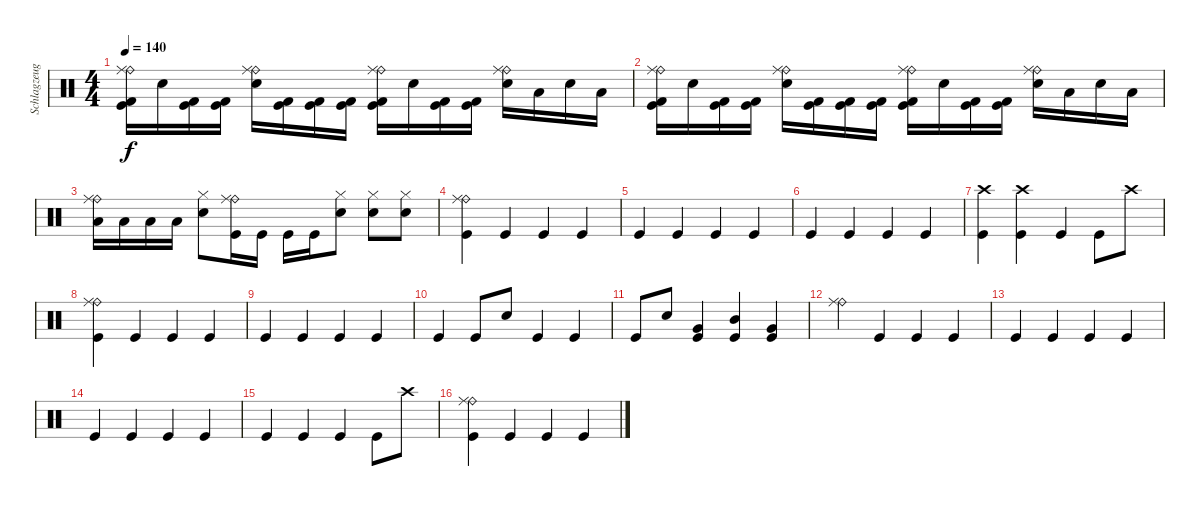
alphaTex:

\track ("Schlagzeug" "Schlagzeug") {instrument percussion}
\staff {score}
\articulation defaults
\ts (4 4)
\tempo 140
\clef neutral
\ks c
("Ride (bell)" "Ride (middle)" "Kick (hit) 2" "Kick (hit)").16{dy f} "Snare (hit) 2".16 ("Kick (hit) 2" "Kick (hit)").16 ("Kick (hit) 2" "Kick (hit)").16 ("Ride (bell)" "Ride (middle)" "Snare (hit) 2").16 ("Kick (hit) 2" "Kick (hit)").16 ("Kick (hit) 2" "Kick (hit)").16 ("Kick (hit) 2" "Kick (hit)").16 ("Ride (bell)" "Ride (middle)" "Kick (hit) 2" "Kick (hit)").16 "Snare (hit) 2".16 ("Kick (hit) 2" "Kick (hit)").16 ("Kick (hit) 2" "Kick (hit)").16 ("Ride (bell)" "Ride (middle)" "Snare (hit) 2").16 "Low Tom (hit)".16 "Snare (hit) 2".16 "Low Tom (hit)".16 |
("Ride (bell)" "Ride (middle)" "Kick (hit) 2" "Kick (hit)").16 "Snare (hit) 2".16 ("Kick (hit) 2" "Kick (hit)").16 ("Kick (hit) 2" "Kick (hit)").16 ("Ride (bell)" "Ride (middle)" "Snare (hit) 2").16 ("Kick (hit) 2" "Kick (hit)").16 ("Kick (hit) 2" "Kick (hit)").16 ("Kick (hit) 2" "Kick (hit)").16 ("Ride (bell)" "Ride (middle)" "Kick (hit) 2" "Kick (hit)").16 "Snare (hit) 2".16 ("Kick (hit) 2" "Kick (hit)").16 ("Kick (hit) 2" "Kick (hit)").16 ("Ride (bell)" "Ride (middle)" "Snare (hit) 2").16 "Low Tom (hit)".16 "Snare (hit) 2".16 "Low Tom (hit)".16 |
("Ride (bell)" "Ride (middle)" "Low Floor Tom (hit)").16 "Low Floor Tom (hit)".16 "Low Floor Tom (hit)".16 "Low Floor Tom (hit)".16 ("Hi-Hat (closed)" "Snare (hit) 2").8 ("Ride (bell)" "Ride (middle)" "Kick (hit)").16 "Kick (hit)".16 "Kick (hit)".16 "Kick (hit)".16 ("Hi-Hat (closed)" "Snare (hit) 2").8 ("Hi-Hat (closed)" "Snare (hit) 2").8 ("Hi-Hat (closed)" "Snare (hit) 2").8 |
("Ride (bell)" "Ride (middle)" "Kick (hit)").4 "Kick (hit)".4 "Kick (hit)".4 "Kick (hit)".4 |
"Kick (hit)".4 "Kick (hit)".4 "Kick (hit)".4 "Kick (hit)".4 |
"Kick (hit)".4 "Kick (hit)".4 "Kick (hit)".4 "Kick (hit)".4 |
("Crash high (hit)" "Kick (hit)").4 ("Crash high (hit)" "Kick (hit)").4 "Kick (hit)".4 "Kick (hit)".8 "Crash high (hit)".8 |
("Ride (bell)" "Ride (middle)" "Kick (hit)").4 "Kick (hit)".4 "Kick (hit)".4 "Kick (hit)".4 |
"Kick (hit)".4 "Kick (hit)".4 "Kick (hit)".4 "Kick (hit)".4 |
"Kick (hit)".4 "Kick (hit)".8 "Snare (hit) 2".8 "Kick (hit)".4 "Kick (hit)".4 |
"Kick (hit)".8 "Snare (hit) 2".8 ("Very Low Tom (hit)" "Kick (hit)").4 ("Mid Tom (hit)" "Kick (hit)").4 ("Very Low Tom (hit)" "Kick (hit)").4 |
("Ride (bell)" "Ride (middle)").4 "Kick (hit)".4 "Kick (hit)".4 "Kick (hit)".4 |
"Kick (hit)".4 "Kick (hit)".4 "Kick (hit)".4 "Kick (hit)".4 |
"Kick (hit)".4 "Kick (hit)".4 "Kick (hit)".4 "Kick (hit)".4 |
"Kick (hit)".4 "Kick (hit)".4 "Kick (hit)".4 "Kick (hit)".8 "Crash high (hit)".8 |
("Ride (bell)" "Ride (middle)" "Kick (hit)").4 "Kick (hit)".4 "Kick (hit)".4 "Kick (hit)".4
